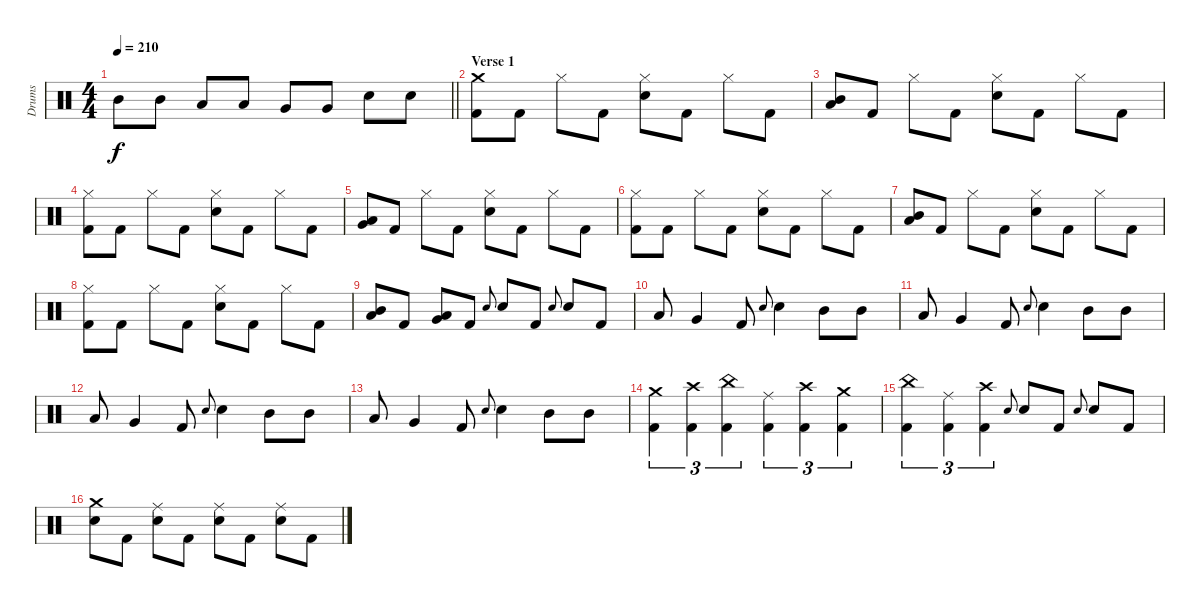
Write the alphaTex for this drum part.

\track ("Drums" "Drums") {instrument percussion}
\staff {score}
\articulation defaults
\ts (4 4)
\tempo 210
\clef neutral
\barLineRight lightlight
\ks c "Mid Tom (hit)".8{dy f} "Mid Tom (hit)".8 "Low Tom (hit)".8 "Low Tom (hit)".8 "Very Low Tom (hit)".8 "Very Low Tom (hit)".8 "Snare (hit) 2".8 "Snare (hit) 2".8
|
\section ("" "Verse 1")
("Kick (hit) 2" "Crash medium (hit)").8 "Kick (hit) 2".8 "Hi-Hat (closed)".8 "Kick (hit) 2".8 ("Snare (hit) 2" "Hi-Hat (closed)").8 "Kick (hit) 2".8 "Hi-Hat (closed)".8 "Kick (hit) 2".8 |
("Mid Tom (hit)" "Low Tom (hit)").8 "Kick (hit) 2".8 "Hi-Hat (closed)".8 "Kick (hit) 2".8 ("Snare (hit) 2" "Hi-Hat (closed)").8 "Kick (hit) 2".8 "Hi-Hat (closed)".8 "Kick (hit) 2".8 |
("Kick (hit) 2" "Hi-Hat (closed)").8 "Kick (hit) 2".8 "Hi-Hat (closed)".8 "Kick (hit) 2".8 ("Snare (hit) 2" "Hi-Hat (closed)").8 "Kick (hit) 2".8 "Hi-Hat (closed)".8 "Kick (hit) 2".8 |
("Low Tom (hit)" "Very Low Tom (hit)").8 "Kick (hit) 2".8 "Hi-Hat (closed)".8 "Kick (hit) 2".8 ("Snare (hit) 2" "Hi-Hat (closed)").8 "Kick (hit) 2".8 "Hi-Hat (closed)".8 "Kick (hit) 2".8 |
("Kick (hit) 2" "Hi-Hat (closed)").8 "Kick (hit) 2".8 "Hi-Hat (closed)".8 "Kick (hit) 2".8 ("Snare (hit) 2" "Hi-Hat (closed)").8 "Kick (hit) 2".8 "Hi-Hat (closed)".8 "Kick (hit) 2".8 |
("Mid Tom (hit)" "Low Tom (hit)").8 "Kick (hit) 2".8 "Hi-Hat (closed)".8 "Kick (hit) 2".8 ("Snare (hit) 2" "Hi-Hat (closed)").8 "Kick (hit) 2".8 "Hi-Hat (closed)".8 "Kick (hit) 2".8 |
("Kick (hit) 2" "Hi-Hat (closed)").8 "Kick (hit) 2".8 "Hi-Hat (closed)".8 "Kick (hit) 2".8 ("Snare (hit) 2" "Hi-Hat (closed)").8 "Kick (hit) 2".8 "Hi-Hat (closed)".8 "Kick (hit) 2".8 |
("Mid Tom (hit)" "Low Tom (hit)").8 "Kick (hit) 2".8 ("Low Tom (hit)" "Very Low Tom (hit)").8 "Kick (hit) 2".8 "Snare (hit) 2".8{gr onbeat} "Snare (hit) 2".8 "Kick (hit) 2".8 "Snare (hit) 2".8{gr onbeat} "Snare (hit) 2".8 "Kick (hit) 2".8 |
"Low Tom (hit)".8 "Very Low Tom (hit)".4 "Kick (hit) 2".8 "Snare (hit) 2".8{gr onbeat} "Snare (hit) 2".4 "Mid Tom (hit)".8 "Mid Tom (hit)".8 |
"Low Tom (hit)".8 "Very Low Tom (hit)".4 "Kick (hit) 2".8 "Snare (hit) 2".8{gr onbeat} "Snare (hit) 2".4 "Mid Tom (hit)".8 "Mid Tom (hit)".8 |
"Low Tom (hit)".8 "Very Low Tom (hit)".4 "Kick (hit) 2".8 "Snare (hit) 2".8{gr onbeat} "Snare (hit) 2".4 "Mid Tom (hit)".8 "Mid Tom (hit)".8 |
"Low Tom (hit)".8 "Very Low Tom (hit)".4 "Kick (hit) 2".8 "Snare (hit) 2".8{gr onbeat} "Snare (hit) 2".4 "Mid Tom (hit)".8 "Mid Tom (hit)".8 |
("Kick (hit) 2" "Crash medium (hit)").4{tu (3 2)} ("Kick (hit) 2" "Crash high (hit)").4{tu (3 2)} ("Kick (hit) 2" "China (hit)").4{tu (3 2)} ("Kick (hit) 2" "Ride (middle)").4{tu (3 2)} ("Kick (hit) 2" "Crash high (hit)").4{tu (3 2)} ("Kick (hit) 2" "Crash medium (hit)").4{tu (3 2)} |
("Kick (hit) 2" "China (hit)").4{tu (3 2)} ("Kick (hit) 2" "Ride (middle)").4{tu (3 2)} ("Kick (hit) 2" "Crash high (hit)").4{tu (3 2)} "Snare (hit) 2".8{gr onbeat} "Snare (hit) 2".8 "Kick (hit) 2".8 "Snare (hit) 2".8{gr onbeat} "Snare (hit) 2".8 "Kick (hit) 2".8 |
("Snare (hit) 2" "Crash medium (hit)").8 "Kick (hit) 2".8 ("Snare (hit) 2" "Ride (middle)").8 "Kick (hit) 2".8 ("Snare (hit) 2" "Ride (middle)").8 "Kick (hit) 2".8 ("Snare (hit) 2" "Ride (middle)").8 "Kick (hit) 2".8
